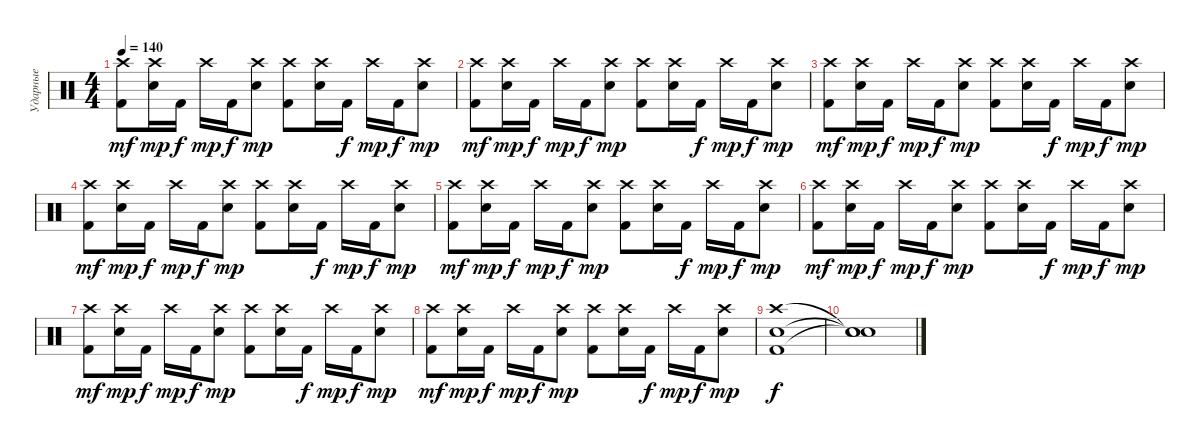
\track ("Ударные" "Ударные") {instrument percussion}
\staff {score}
\articulation defaults
\ts (4 4)
\tempo 140
\clef neutral
\ks c
("Crash high (hit)" "Kick (hit) 2").8{dy mf} ("Crash high (hit)" "Electric Snare (hit)").16{dy mp} "Kick (hit) 2".16{dy f} "Crash high (hit)".16{dy mp} "Kick (hit) 2".16{dy f} ("Crash high (hit)" "Electric Snare (hit)").8{dy mp} ("Crash high (hit)" "Kick (hit) 2").8 ("Crash high (hit)" "Electric Snare (hit)").16 "Kick (hit) 2".16{dy f} "Crash high (hit)".16{dy mp} "Kick (hit) 2".16{dy f} ("Crash high (hit)" "Electric Snare (hit)").8{dy mp} |
("Crash high (hit)" "Kick (hit) 2").8{dy mf} ("Crash high (hit)" "Electric Snare (hit)").16{dy mp} "Kick (hit) 2".16{dy f} "Crash high (hit)".16{dy mp} "Kick (hit) 2".16{dy f} ("Crash high (hit)" "Electric Snare (hit)").8{dy mp} ("Crash high (hit)" "Kick (hit) 2").8 ("Crash high (hit)" "Electric Snare (hit)").16 "Kick (hit) 2".16{dy f} "Crash high (hit)".16{dy mp} "Kick (hit) 2".16{dy f} ("Crash high (hit)" "Electric Snare (hit)").8{dy mp} |
("Crash high (hit)" "Kick (hit) 2").8{dy mf} ("Crash high (hit)" "Electric Snare (hit)").16{dy mp} "Kick (hit) 2".16{dy f} "Crash high (hit)".16{dy mp} "Kick (hit) 2".16{dy f} ("Crash high (hit)" "Electric Snare (hit)").8{dy mp} ("Crash high (hit)" "Kick (hit) 2").8 ("Crash high (hit)" "Electric Snare (hit)").16 "Kick (hit) 2".16{dy f} "Crash high (hit)".16{dy mp} "Kick (hit) 2".16{dy f} ("Crash high (hit)" "Electric Snare (hit)").8{dy mp} |
("Crash high (hit)" "Kick (hit) 2").8{dy mf} ("Crash high (hit)" "Electric Snare (hit)").16{dy mp} "Kick (hit) 2".16{dy f} "Crash high (hit)".16{dy mp} "Kick (hit) 2".16{dy f} ("Crash high (hit)" "Electric Snare (hit)").8{dy mp} ("Crash high (hit)" "Kick (hit) 2").8 ("Crash high (hit)" "Electric Snare (hit)").16 "Kick (hit) 2".16{dy f} "Crash high (hit)".16{dy mp} "Kick (hit) 2".16{dy f} ("Crash high (hit)" "Electric Snare (hit)").8{dy mp} |
("Crash high (hit)" "Kick (hit) 2").8{dy mf} ("Crash high (hit)" "Electric Snare (hit)").16{dy mp} "Kick (hit) 2".16{dy f} "Crash high (hit)".16{dy mp} "Kick (hit) 2".16{dy f} ("Crash high (hit)" "Electric Snare (hit)").8{dy mp} ("Crash high (hit)" "Kick (hit) 2").8 ("Crash high (hit)" "Electric Snare (hit)").16 "Kick (hit) 2".16{dy f} "Crash high (hit)".16{dy mp} "Kick (hit) 2".16{dy f} ("Crash high (hit)" "Electric Snare (hit)").8{dy mp} |
("Crash high (hit)" "Kick (hit) 2").8{dy mf} ("Crash high (hit)" "Electric Snare (hit)").16{dy mp} "Kick (hit) 2".16{dy f} "Crash high (hit)".16{dy mp} "Kick (hit) 2".16{dy f} ("Crash high (hit)" "Electric Snare (hit)").8{dy mp} ("Crash high (hit)" "Kick (hit) 2").8 ("Crash high (hit)" "Electric Snare (hit)").16 "Kick (hit) 2".16{dy f} "Crash high (hit)".16{dy mp} "Kick (hit) 2".16{dy f} ("Crash high (hit)" "Electric Snare (hit)").8{dy mp} |
("Crash high (hit)" "Kick (hit) 2").8{dy mf} ("Crash high (hit)" "Electric Snare (hit)").16{dy mp} "Kick (hit) 2".16{dy f} "Crash high (hit)".16{dy mp} "Kick (hit) 2".16{dy f} ("Crash high (hit)" "Electric Snare (hit)").8{dy mp} ("Crash high (hit)" "Kick (hit) 2").8 ("Crash high (hit)" "Electric Snare (hit)").16 "Kick (hit) 2".16{dy f} "Crash high (hit)".16{dy mp} "Kick (hit) 2".16{dy f} ("Crash high (hit)" "Electric Snare (hit)").8{dy mp} |
("Crash high (hit)" "Kick (hit) 2").8{dy mf} ("Crash high (hit)" "Electric Snare (hit)").16{dy mp} "Kick (hit) 2".16{dy f} "Crash high (hit)".16{dy mp} "Kick (hit) 2".16{dy f} ("Crash high (hit)" "Electric Snare (hit)").8{dy mp} ("Crash high (hit)" "Kick (hit) 2").8 ("Crash high (hit)" "Electric Snare (hit)").16 "Kick (hit) 2".16{dy f} "Crash high (hit)".16{dy mp} "Kick (hit) 2".16{dy f} ("Crash high (hit)" "Electric Snare (hit)").8{dy mp} |
("Crash high (hit)" "Electric Snare (hit)" "Kick (hit) 2").1{dy f} |
("Snare (hit)"{t} "Snare (hit)"{t} "Snare (hit)"{t}).1
